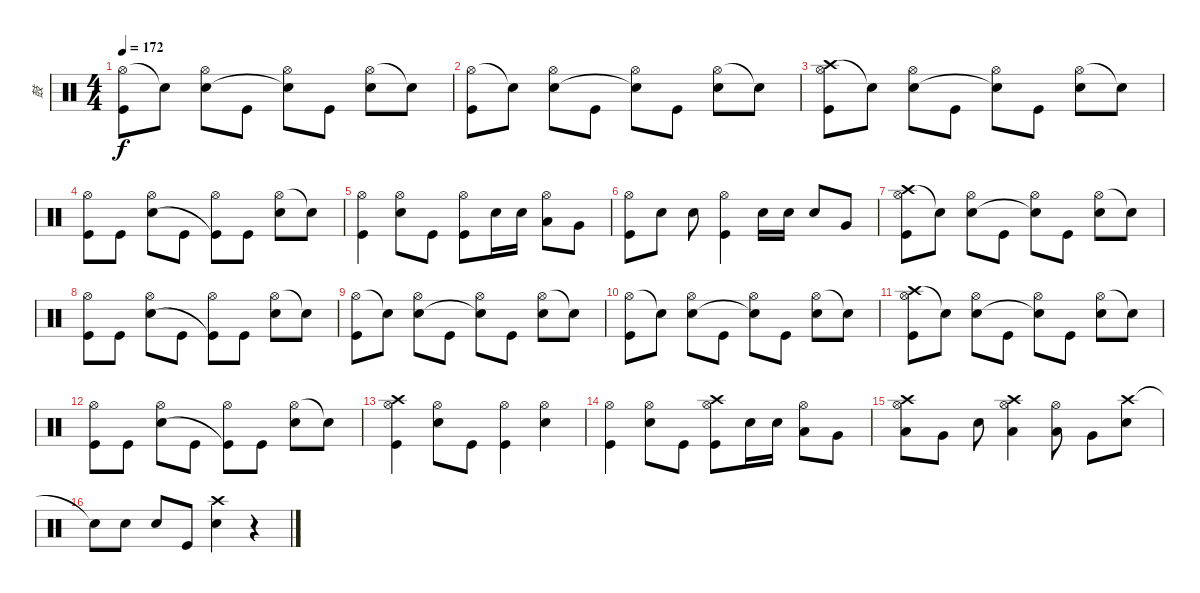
\track ("鼓" "鼓") {instrument percussion}
\staff {score}
\articulation defaults
\ts (4 4)
\tempo 172
\clef neutral
\ks c
("Hi-Hat (open)" "Kick (hit)").8{dy f} "Snare (hit) 2"{t}.8 ("Hi-Hat (open)" "Snare (hit) 2").8 "Kick (hit)".8 ("Hi-Hat (open)" "Snare (hit) 2"{t}).8 "Kick (hit)".8 ("Hi-Hat (open)" "Snare (hit) 2").8 "Snare (hit)"{t}.8 |
("Hi-Hat (open)" "Kick (hit)").8 "Snare (hit) 2"{t}.8 ("Hi-Hat (open)" "Snare (hit) 2").8 "Kick (hit)".8 ("Hi-Hat (open)" "Snare (hit) 2"{t}).8 "Kick (hit)".8 ("Hi-Hat (open)" "Snare (hit) 2").8 "Snare (hit)"{t}.8 |
("Crash high (hit)" "Hi-Hat (open)" "Kick (hit)").8 "Snare (hit) 2"{t}.8 ("Hi-Hat (open)" "Snare (hit) 2").8 "Kick (hit)".8 ("Hi-Hat (open)" "Snare (hit) 2"{t}).8 "Kick (hit)".8 ("Hi-Hat (open)" "Snare (hit) 2").8 "Snare (hit)"{t}.8 |
("Hi-Hat (open)" "Kick (hit)").8 "Kick (hit)".8 ("Hi-Hat (open)" "Snare (hit) 2").8 "Kick (hit)".8 ("Hi-Hat (open)" "Kick (hit)"{t}).8 "Kick (hit)".8 ("Hi-Hat (open)" "Snare (hit) 2").8 "Snare (hit)"{t}.8 |
("Hi-Hat (open)" "Kick (hit)").4 ("Hi-Hat (open)" "Snare (hit) 2").8 "Kick (hit)".8 ("Hi-Hat (open)" "Kick (hit)").8 "Snare (hit) 2".16 "Snare (hit) 2".16 ("Hi-Hat (open)" "Low Tom (hit)").8 "Very Low Tom (hit)".8 |
("Hi-Hat (open)" "Kick (hit)").8 "Snare (hit) 2".8 "Snare (hit) 2".8 ("Hi-Hat (open)" "Kick (hit)").4 "Snare (hit) 2".16 "Snare (hit) 2".16 "Snare (hit) 2".8 "Very Low Tom (hit)".8 |
("Crash high (hit)" "Hi-Hat (open)" "Kick (hit)").8 "Snare (hit) 2"{t}.8 ("Hi-Hat (open)" "Snare (hit) 2").8 "Kick (hit)".8 ("Hi-Hat (open)" "Snare (hit) 2"{t}).8 "Kick (hit)".8 ("Hi-Hat (open)" "Snare (hit) 2").8 "Snare (hit)"{t}.8 |
("Hi-Hat (open)" "Kick (hit)").8 "Kick (hit)".8 ("Hi-Hat (open)" "Snare (hit) 2").8 "Kick (hit)".8 ("Hi-Hat (open)" "Kick (hit)"{t}).8 "Kick (hit)".8 ("Hi-Hat (open)" "Snare (hit) 2").8 "Snare (hit)"{t}.8 |
("Hi-Hat (open)" "Kick (hit)").8 "Snare (hit) 2"{t}.8 ("Hi-Hat (open)" "Snare (hit) 2").8 "Kick (hit)".8 ("Hi-Hat (open)" "Snare (hit) 2"{t}).8 "Kick (hit)".8 ("Hi-Hat (open)" "Snare (hit) 2").8 "Snare (hit)"{t}.8 |
("Hi-Hat (open)" "Kick (hit)").8 "Snare (hit) 2"{t}.8 ("Hi-Hat (open)" "Snare (hit) 2").8 "Kick (hit)".8 ("Hi-Hat (open)" "Snare (hit) 2"{t}).8 "Kick (hit)".8 ("Hi-Hat (open)" "Snare (hit) 2").8 "Snare (hit)"{t}.8 |
("Crash high (hit)" "Hi-Hat (open)" "Kick (hit)").8 "Snare (hit) 2"{t}.8 ("Hi-Hat (open)" "Snare (hit) 2").8 "Kick (hit)".8 ("Hi-Hat (open)" "Snare (hit) 2"{t}).8 "Kick (hit)".8 ("Hi-Hat (open)" "Snare (hit) 2").8 "Snare (hit)"{t}.8 |
("Hi-Hat (open)" "Kick (hit)").8 "Kick (hit)".8 ("Hi-Hat (open)" "Snare (hit) 2").8 "Kick (hit)".8 ("Hi-Hat (open)" "Kick (hit)"{t}).8 "Kick (hit)".8 ("Hi-Hat (open)" "Snare (hit) 2").8 "Snare (hit)"{t}.8 |
("Crash high (hit)" "Hi-Hat (open)" "Kick (hit)").4 ("Hi-Hat (open)" "Snare (hit) 2").8 "Kick (hit)".8 ("Hi-Hat (open)" "Kick (hit)").4 ("Hi-Hat (open)" "Snare (hit) 2").4 |
("Hi-Hat (open)" "Kick (hit)").4 ("Hi-Hat (open)" "Snare (hit) 2").8 "Kick (hit)".8 ("Crash high (hit)" "Hi-Hat (open)" "Kick (hit)").8 "Snare (hit) 2".16 "Snare (hit) 2".16 ("Hi-Hat (open)" "Low Tom (hit)").8 "Very Low Tom (hit)".8 |
("Crash high (hit)" "Hi-Hat (open)" "Low Tom (hit)").8 "Very Low Tom (hit)".8 "Snare (hit) 2".8 ("Crash high (hit)" "Hi-Hat (open)" "Low Tom (hit)").4 ("Hi-Hat (open)" "Low Tom (hit)").8 "Very Low Tom (hit)".8 ("Crash high (hit)" "Snare (hit) 2").8 |
"Snare (hit) 2"{t}.8 "Snare (hit) 2".8 "Snare (hit) 2".8 "Kick (hit)".8 ("Crash high (hit)" "Snare (hit) 2").4 r.4
